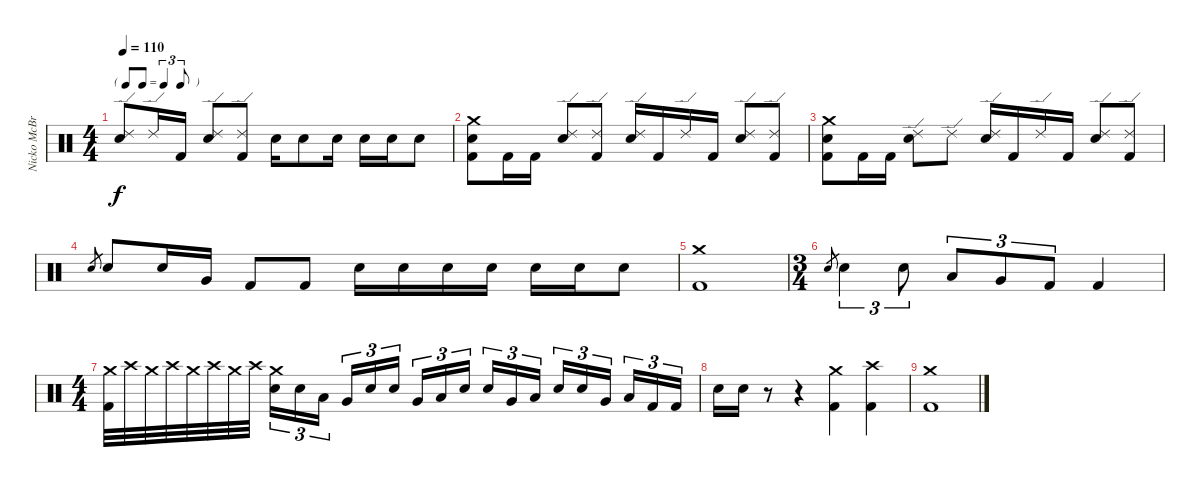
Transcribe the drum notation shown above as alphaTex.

\track ("Nicko McBrain" "Nicko McBr") {instrument percussion}
\staff {score}
\articulation defaults
\ts (4 4)
\tf triplet8th
\tempo 110
\clef neutral
\ks c
("Ride (edge) 2" "Electric Snare (hit)").8{dy f} "Ride (edge) 2".16 "Kick (hit) 2".16 ("Ride (edge) 2" "Electric Snare (hit)").8 ("Ride (edge) 2" "Kick (hit) 2").8 "Electric Snare (hit)".16 "Electric Snare (hit)".8 "Electric Snare (hit)".16 "Electric Snare (hit)".16 "Electric Snare (hit)".16 "Electric Snare (hit)".8 |
("Crash medium (hit)" "Electric Snare (hit)" "Kick (hit) 2").8 "Kick (hit) 2".16 "Kick (hit) 2".16 ("Ride (edge) 2" "Electric Snare (hit)").8 ("Ride (edge) 2" "Kick (hit) 2").8 ("Ride (edge) 2" "Electric Snare (hit)").16 "Kick (hit) 2".16 "Ride (edge) 2".16 "Kick (hit) 2".16 ("Ride (edge) 2" "Electric Snare (hit)").8 ("Ride (edge) 2" "Kick (hit) 2").8 |
("Crash medium (hit)" "Electric Snare (hit)" "Kick (hit) 2").8 "Kick (hit) 2".16 "Kick (hit) 2".16 ("Ride (edge) 2" "Electric Snare (hit)").8 "Ride (edge) 2".8 ("Ride (edge) 2" "Electric Snare (hit)").16 "Kick (hit) 2".16 "Ride (edge) 2".16 "Kick (hit) 2".16 ("Ride (edge) 2" "Electric Snare (hit)").8 ("Ride (edge) 2" "Kick (hit) 2").8 |
"Electric Snare (hit)".8{gr} "Electric Snare (hit)".8 "Electric Snare (hit)".16 "Very Low Tom (hit)".16 "Kick (hit) 2".8 "Kick (hit) 2".8 "Electric Snare (hit)".16 "Electric Snare (hit)".16 "Electric Snare (hit)".16 "Electric Snare (hit)".16 "Electric Snare (hit)".16 "Electric Snare (hit)".16 "Electric Snare (hit)".8 |
("Crash medium (hit)" "Kick (hit) 2").1 |
\ts (3 4)
"Electric Snare (hit)".8{gr} "Electric Snare (hit)".4{tu (3 2)} "Electric Snare (hit)".8{tu (3 2)} "Low Tom (hit)".8{tu (3 2)} "Very Low Tom (hit)".8{tu (3 2)} "Kick (hit) 2".8{tu (3 2)} "Kick (hit) 2".4 |
\ts (4 4)
("Crash medium (hit)" "Kick (hit) 2").32 "Crash high (hit)".32 "Crash medium (hit)".32 "Crash high (hit)".32 "Crash medium (hit)".32 "Crash high (hit)".32 "Crash medium (hit)".32 "Crash high (hit)".32 ("Crash medium (hit)" "Electric Snare (hit)").16{tu (3 2)} "Electric Snare (hit)".16{tu (3 2)} "Low Tom (hit)".16{tu (3 2)} "Very Low Tom (hit)".16{tu (3 2)} "Electric Snare (hit)".16{tu (3 2)} "Electric Snare (hit)".16{tu (3 2)} "Very Low Tom (hit)".16{tu (3 2)} "Low Floor Tom (hit)".16{tu (3 2)} "Electric Snare (hit)".16{tu (3 2)} "Electric Snare (hit)".16{tu (3 2)} "Very Low Tom (hit)".16{tu (3 2)} "Low Floor Tom (hit)".16{tu (3 2)} "Electric Snare (hit)".16{tu (3 2)} "Electric Snare (hit)".16{tu (3 2)} "Very Low Tom (hit)".16{tu (3 2)} "Low Floor Tom (hit)".16{tu (3 2)} "Kick (hit) 2".16{tu (3 2)} "Kick (hit) 2".16{tu (3 2)} |
"Electric Snare (hit)".16 "Electric Snare (hit)".16 r.8 r.4 ("Crash medium (hit)" "Kick (hit) 2").4 ("Crash high (hit)" "Kick (hit) 2").4 |
("Crash medium (hit)" "Kick (hit) 2").1
